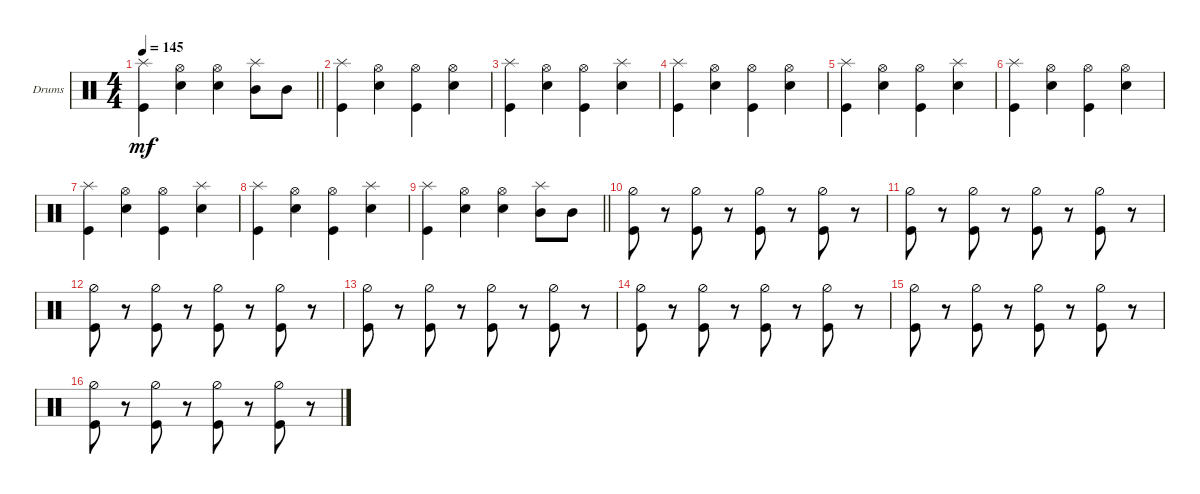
\bracketExtendMode groupsimilarinstruments
\firstSystemTrackNameOrientation horizontal
\otherSystemsTrackNameOrientation horizontal
\track ("Drums" "Drums") {instrument percussion}
\staff {score}
\articulation defaults
\ts (4 4)
\tempo 145
\clef neutral
\barLineRight lightlight
\ks c
("Kick (hit)" "Splash (hit)").4{dy mf} ("Snare (hit) 2" "Hi-Hat (open)").4 ("Hi-Hat (open)" "Snare (hit) 2").4 ("Splash (hit)" "Mid Tom (hit)").8 "Mid Tom (hit)".8 |
("Kick (hit)" "Splash (hit)").4 ("Snare (hit) 2" "Hi-Hat (open)").4 ("Kick (hit)" "Hi-Hat (open)").4 ("Snare (hit) 2" "Hi-Hat (open)").4 |
("Kick (hit)" "Splash (hit)").4 ("Snare (hit) 2" "Hi-Hat (open)").4 ("Kick (hit)" "Hi-Hat (open)").4 ("Snare (hit) 2" "Splash (hit)").4 |
("Kick (hit)" "Splash (hit)").4 ("Snare (hit) 2" "Hi-Hat (open)").4 ("Kick (hit)" "Hi-Hat (open)").4 ("Snare (hit) 2" "Hi-Hat (open)").4 |
("Kick (hit)" "Splash (hit)").4 ("Snare (hit) 2" "Hi-Hat (open)").4 ("Kick (hit)" "Hi-Hat (open)").4 ("Snare (hit) 2" "Splash (hit)").4 |
("Kick (hit)" "Splash (hit)").4 ("Snare (hit) 2" "Hi-Hat (open)").4 ("Kick (hit)" "Hi-Hat (open)").4 ("Snare (hit) 2" "Hi-Hat (open)").4 |
("Kick (hit)" "Splash (hit)").4 ("Snare (hit) 2" "Hi-Hat (open)").4 ("Kick (hit)" "Hi-Hat (open)").4 ("Snare (hit) 2" "Splash (hit)").4 |
("Kick (hit)" "Splash (hit)").4 ("Snare (hit) 2" "Hi-Hat (open)").4 ("Kick (hit)" "Hi-Hat (open)").4 ("Snare (hit) 2" "Splash (hit)").4 |
\barLineRight lightlight
("Kick (hit)" "Splash (hit)").4 ("Snare (hit) 2" "Hi-Hat (open)").4 ("Hi-Hat (open)" "Snare (hit) 2").4 ("Splash (hit)" "Mid Tom (hit)").8 "Mid Tom (hit)".8 |
("Kick (hit)" "Hi-Hat (half)").8 r.8 ("Hi-Hat (half)" "Kick (hit)").8 r.8 ("Hi-Hat (half)" "Kick (hit)").8 r.8 ("Kick (hit)" "Hi-Hat (half)").8 r.8 |
("Kick (hit)" "Hi-Hat (half)").8 r.8 ("Hi-Hat (half)" "Kick (hit)").8 r.8 ("Hi-Hat (half)" "Kick (hit)").8 r.8 ("Kick (hit)" "Hi-Hat (half)").8 r.8 |
("Kick (hit)" "Hi-Hat (half)").8 r.8 ("Hi-Hat (half)" "Kick (hit)").8 r.8 ("Hi-Hat (half)" "Kick (hit)").8 r.8 ("Kick (hit)" "Hi-Hat (half)").8 r.8 |
("Kick (hit)" "Hi-Hat (half)").8 r.8 ("Hi-Hat (half)" "Kick (hit)").8 r.8 ("Hi-Hat (half)" "Kick (hit)").8 r.8 ("Kick (hit)" "Hi-Hat (half)").8 r.8 |
("Kick (hit)" "Hi-Hat (half)").8 r.8 ("Hi-Hat (half)" "Kick (hit)").8 r.8 ("Hi-Hat (half)" "Kick (hit)").8 r.8 ("Kick (hit)" "Hi-Hat (half)").8 r.8 |
("Kick (hit)" "Hi-Hat (half)").8 r.8 ("Hi-Hat (half)" "Kick (hit)").8 r.8 ("Hi-Hat (half)" "Kick (hit)").8 r.8 ("Kick (hit)" "Hi-Hat (half)").8 r.8 |
("Kick (hit)" "Hi-Hat (half)").8 r.8 ("Hi-Hat (half)" "Kick (hit)").8 r.8 ("Hi-Hat (half)" "Kick (hit)").8 r.8 ("Kick (hit)" "Hi-Hat (half)").8 r.8
